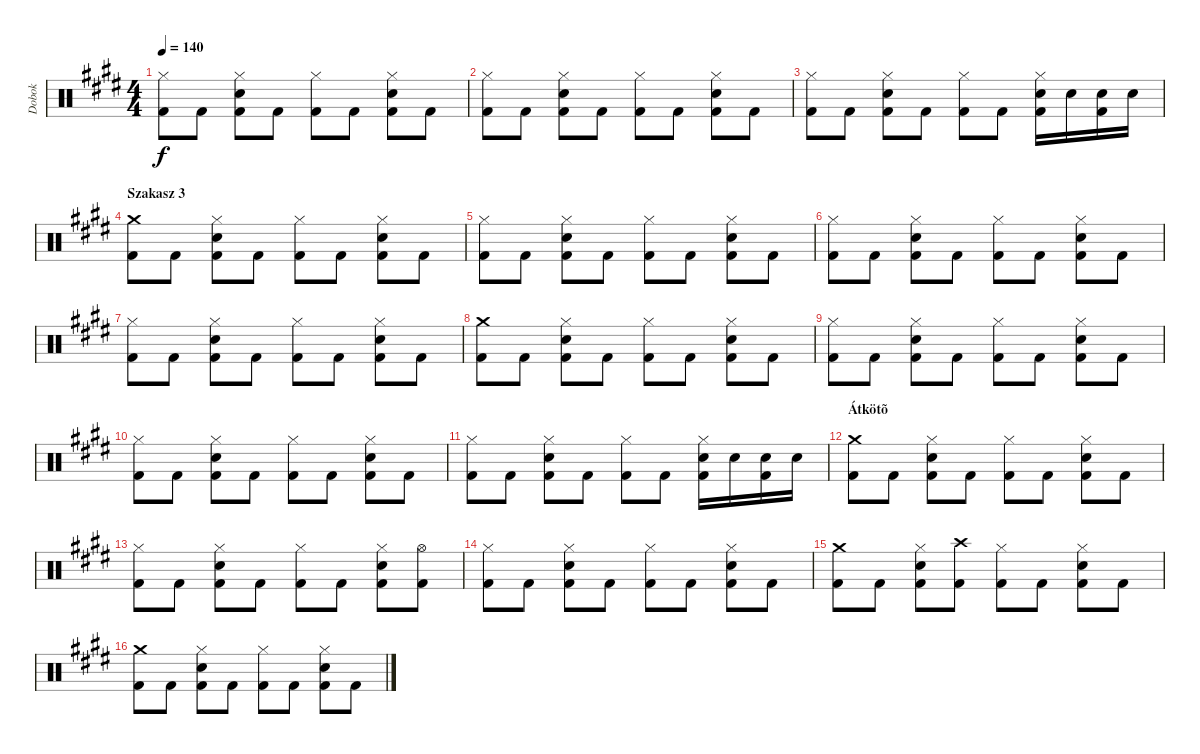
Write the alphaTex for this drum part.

\track ("Dobok" "Dobok") {instrument percussion}
\staff {score}
\articulation defaults
\ts (4 4)
\tempo 140
\clef neutral
\ks c#minor
("Hi-Hat (closed)" "Kick (hit) 2").8{dy f} "Kick (hit) 2".8 ("Hi-Hat (closed)" "Snare (hit) 2" "Kick (hit) 2").8 "Kick (hit) 2".8 ("Hi-Hat (closed)" "Kick (hit) 2").8 "Kick (hit) 2".8 ("Hi-Hat (closed)" "Snare (hit) 2" "Kick (hit) 2").8 "Kick (hit) 2".8 |
("Hi-Hat (closed)" "Kick (hit) 2").8 "Kick (hit) 2".8 ("Hi-Hat (closed)" "Snare (hit) 2" "Kick (hit) 2").8 "Kick (hit) 2".8 ("Hi-Hat (closed)" "Kick (hit) 2").8 "Kick (hit) 2".8 ("Hi-Hat (closed)" "Snare (hit) 2" "Kick (hit) 2").8 "Kick (hit) 2".8 |
("Hi-Hat (closed)" "Kick (hit) 2").8 "Kick (hit) 2".8 ("Hi-Hat (closed)" "Snare (hit) 2" "Kick (hit) 2").8 "Kick (hit) 2".8 ("Hi-Hat (closed)" "Kick (hit) 2").8 "Kick (hit) 2".8 ("Hi-Hat (closed)" "Snare (hit) 2" "Kick (hit) 2").16 "Snare (hit) 2".16 ("Snare (hit) 2" "Kick (hit) 2").16 "Snare (hit) 2".16 |
\section ("" "Szakasz 3")
("Crash medium (hit)" "Kick (hit) 2").8 "Kick (hit) 2".8 ("Hi-Hat (closed)" "Snare (hit) 2" "Kick (hit) 2").8 "Kick (hit) 2".8 ("Hi-Hat (closed)" "Kick (hit) 2").8 "Kick (hit) 2".8 ("Hi-Hat (closed)" "Snare (hit) 2" "Kick (hit) 2").8 "Kick (hit) 2".8 |
("Hi-Hat (closed)" "Kick (hit) 2").8 "Kick (hit) 2".8 ("Hi-Hat (closed)" "Snare (hit) 2" "Kick (hit) 2").8 "Kick (hit) 2".8 ("Hi-Hat (closed)" "Kick (hit) 2").8 "Kick (hit) 2".8 ("Hi-Hat (closed)" "Snare (hit) 2" "Kick (hit) 2").8 "Kick (hit) 2".8 |
("Hi-Hat (closed)" "Kick (hit) 2").8 "Kick (hit) 2".8 ("Hi-Hat (closed)" "Snare (hit) 2" "Kick (hit) 2").8 "Kick (hit) 2".8 ("Hi-Hat (closed)" "Kick (hit) 2").8 "Kick (hit) 2".8 ("Hi-Hat (closed)" "Snare (hit) 2" "Kick (hit) 2").8 "Kick (hit) 2".8 |
("Hi-Hat (closed)" "Kick (hit) 2").8 "Kick (hit) 2".8 ("Hi-Hat (closed)" "Snare (hit) 2" "Kick (hit) 2").8 "Kick (hit) 2".8 ("Hi-Hat (closed)" "Kick (hit) 2").8 "Kick (hit) 2".8 ("Hi-Hat (closed)" "Snare (hit) 2" "Kick (hit) 2").8 "Kick (hit) 2".8 |
("Crash medium (hit)" "Kick (hit) 2").8 "Kick (hit) 2".8 ("Hi-Hat (closed)" "Snare (hit) 2" "Kick (hit) 2").8 "Kick (hit) 2".8 ("Hi-Hat (closed)" "Kick (hit) 2").8 "Kick (hit) 2".8 ("Hi-Hat (closed)" "Snare (hit) 2" "Kick (hit) 2").8 "Kick (hit) 2".8 |
("Hi-Hat (closed)" "Kick (hit) 2").8 "Kick (hit) 2".8 ("Hi-Hat (closed)" "Snare (hit) 2" "Kick (hit) 2").8 "Kick (hit) 2".8 ("Hi-Hat (closed)" "Kick (hit) 2").8 "Kick (hit) 2".8 ("Hi-Hat (closed)" "Snare (hit) 2" "Kick (hit) 2").8 "Kick (hit) 2".8 |
("Hi-Hat (closed)" "Kick (hit) 2").8 "Kick (hit) 2".8 ("Hi-Hat (closed)" "Snare (hit) 2" "Kick (hit) 2").8 "Kick (hit) 2".8 ("Hi-Hat (closed)" "Kick (hit) 2").8 "Kick (hit) 2".8 ("Hi-Hat (closed)" "Snare (hit) 2" "Kick (hit) 2").8 "Kick (hit) 2".8 |
("Hi-Hat (closed)" "Kick (hit) 2").8 "Kick (hit) 2".8 ("Hi-Hat (closed)" "Snare (hit) 2" "Kick (hit) 2").8 "Kick (hit) 2".8 ("Hi-Hat (closed)" "Kick (hit) 2").8 "Kick (hit) 2".8 ("Hi-Hat (closed)" "Snare (hit) 2" "Kick (hit) 2").16 "Snare (hit) 2".16 ("Snare (hit) 2" "Kick (hit) 2").16 "Snare (hit) 2".16 |
\section ("" "Átkötõ")
("Crash medium (hit)" "Kick (hit) 2").8 "Kick (hit) 2".8 ("Hi-Hat (closed)" "Snare (hit) 2" "Kick (hit) 2").8 "Kick (hit) 2".8 ("Hi-Hat (closed)" "Kick (hit) 2").8 "Kick (hit) 2".8 ("Hi-Hat (closed)" "Snare (hit) 2" "Kick (hit) 2").8 "Kick (hit) 2".8 |
("Hi-Hat (closed)" "Kick (hit) 2").8 "Kick (hit) 2".8 ("Hi-Hat (closed)" "Snare (hit) 2" "Kick (hit) 2").8 "Kick (hit) 2".8 ("Hi-Hat (closed)" "Kick (hit) 2").8 "Kick (hit) 2".8 ("Hi-Hat (closed)" "Snare (hit) 2" "Kick (hit) 2").8 ("Hi-Hat (open)" "Kick (hit) 2").8 |
("Hi-Hat (closed)" "Kick (hit) 2").8 "Kick (hit) 2".8 ("Hi-Hat (closed)" "Snare (hit) 2" "Kick (hit) 2").8 "Kick (hit) 2".8 ("Hi-Hat (closed)" "Kick (hit) 2").8 "Kick (hit) 2".8 ("Hi-Hat (closed)" "Snare (hit) 2" "Kick (hit) 2").8 "Kick (hit) 2".8 |
("Crash medium (hit)" "Kick (hit) 2").8 "Kick (hit) 2".8 ("Hi-Hat (closed)" "Snare (hit) 2" "Kick (hit) 2").8 ("Crash high (hit)" "Kick (hit) 2").8 ("Hi-Hat (closed)" "Kick (hit) 2").8 "Kick (hit) 2".8 ("Hi-Hat (closed)" "Snare (hit) 2" "Kick (hit) 2").8 "Kick (hit) 2".8 |
("Crash medium (hit)" "Kick (hit) 2").8 "Kick (hit) 2".8 ("Hi-Hat (closed)" "Snare (hit) 2" "Kick (hit) 2").8 "Kick (hit) 2".8 ("Hi-Hat (closed)" "Kick (hit) 2").8 "Kick (hit) 2".8 ("Hi-Hat (closed)" "Snare (hit) 2" "Kick (hit) 2").8 "Kick (hit) 2".8
